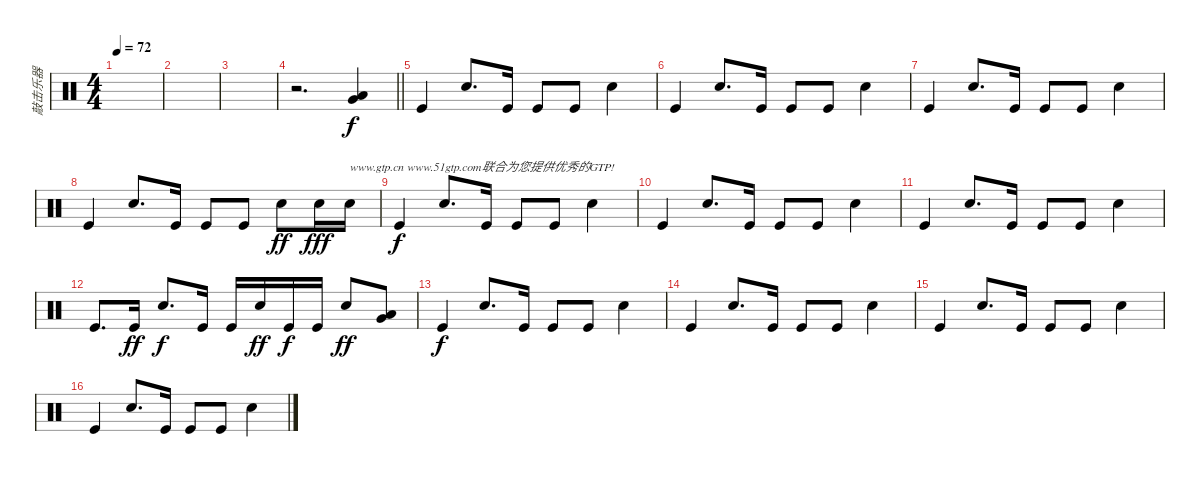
\track ("敲击乐器" "敲击乐器") {instrument percussion}
\staff {score}
\articulation defaults
\ts (4 4)
\tempo 72
\clef neutral
\ks c
|
|
|
\barLineRight lightlight
r.2{d} ("Low Tom (hit)" "Very Low Tom (hit)").4 |
"Kick (hit)".4 "Snare (hit) 2".8{d} "Kick (hit)".16 "Kick (hit)".8 "Kick (hit)".8 "Snare (hit) 2".4 |
"Kick (hit)".4 "Snare (hit) 2".8{d} "Kick (hit)".16 "Kick (hit)".8 "Kick (hit)".8 "Snare (hit) 2".4 |
"Kick (hit)".4 "Snare (hit) 2".8{d} "Kick (hit)".16 "Kick (hit)".8 "Kick (hit)".8 "Snare (hit) 2".4 |
"Kick (hit)".4 "Snare (hit) 2".8{d} "Kick (hit)".16 "Kick (hit)".8 "Kick (hit)".8 "Snare (hit) 2".8{dy ff} "Snare (hit) 2".16{dy fff} "Snare (hit) 2".16{txt "www.gtp.cn www.51gtp.com联合为您提供优秀的GTP!"} |
"Kick (hit)".4{dy f} "Snare (hit) 2".8{d} "Kick (hit)".16 "Kick (hit)".8 "Kick (hit)".8 "Snare (hit) 2".4 |
"Kick (hit)".4 "Snare (hit) 2".8{d} "Kick (hit)".16 "Kick (hit)".8 "Kick (hit)".8 "Snare (hit) 2".4 |
"Kick (hit)".4 "Snare (hit) 2".8{d} "Kick (hit)".16 "Kick (hit)".8 "Kick (hit)".8 "Snare (hit) 2".4 |
"Kick (hit)".8{d} "Kick (hit)".16{dy ff} "Snare (hit) 2".8{d dy f} "Kick (hit)".16 "Kick (hit)".16 "Snare (hit) 2".16{dy ff} "Kick (hit)".16{dy f} "Kick (hit)".16 "Snare (hit) 2".8{dy ff} ("Very Low Tom (hit)" "Low Floor Tom (hit)").8 |
"Kick (hit)".4{dy f} "Snare (hit) 2".8{d} "Kick (hit)".16 "Kick (hit)".8 "Kick (hit)".8 "Snare (hit) 2".4 |
"Kick (hit)".4 "Snare (hit) 2".8{d} "Kick (hit)".16 "Kick (hit)".8 "Kick (hit)".8 "Snare (hit) 2".4 |
"Kick (hit)".4 "Snare (hit) 2".8{d} "Kick (hit)".16 "Kick (hit)".8 "Kick (hit)".8 "Snare (hit) 2".4 |
"Kick (hit)".4 "Snare (hit) 2".8{d} "Kick (hit)".16 "Kick (hit)".8 "Kick (hit)".8 "Snare (hit) 2".4
